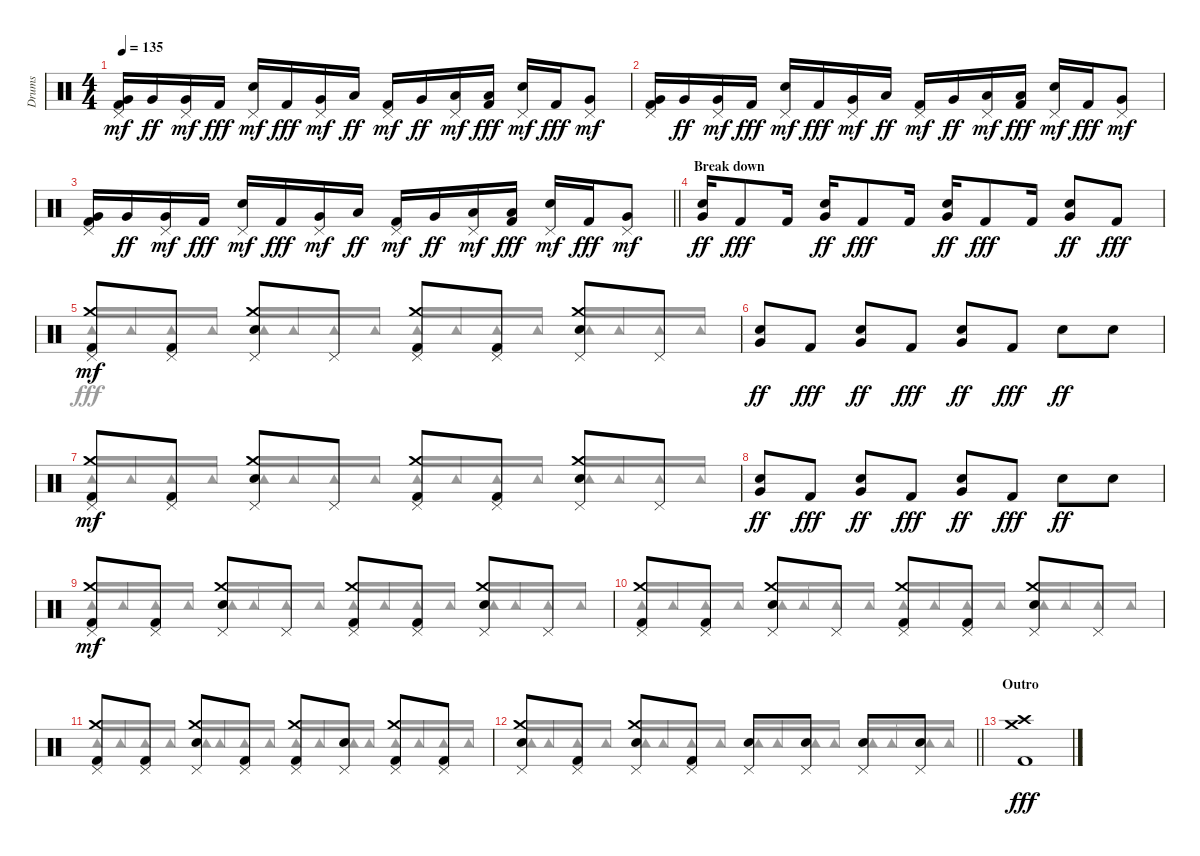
\track ("Drums" "Drums") {instrument percussion}
\staff {score}
\articulation defaults
\voice
\ts (4 4)
\tempo 135
\clef neutral
\ks c
("Very Low Tom (hit)" "Kick (hit) 2" "Pedal Hi-Hat (hit)").16{dy mf} "Very Low Tom (hit)".16{dy ff} ("Very Low Tom (hit)" "Pedal Hi-Hat (hit)").16{dy mf} "Kick (hit) 2".16{dy fff} ("Snare (hit) 2" "Pedal Hi-Hat (hit)").16{dy mf} "Kick (hit) 2".16{dy fff} ("Very Low Tom (hit)" "Pedal Hi-Hat (hit)").16{dy mf} "Low Floor Tom (hit)".16{dy ff} ("Kick (hit) 2" "Pedal Hi-Hat (hit)").16{dy mf} "Very Low Tom (hit)".16{dy ff} ("Low Floor Tom (hit)" "Pedal Hi-Hat (hit)").16{dy mf} ("Low Floor Tom (hit)" "Kick (hit) 2").16{dy fff} ("Snare (hit) 2" "Pedal Hi-Hat (hit)").16{dy mf} "Kick (hit) 2".16{dy fff} ("Very Low Tom (hit)" "Pedal Hi-Hat (hit)").8{dy mf} |
("Very Low Tom (hit)" "Kick (hit) 2" "Pedal Hi-Hat (hit)").16 "Very Low Tom (hit)".16{dy ff} ("Very Low Tom (hit)" "Pedal Hi-Hat (hit)").16{dy mf} "Kick (hit) 2".16{dy fff} ("Snare (hit) 2" "Pedal Hi-Hat (hit)").16{dy mf} "Kick (hit) 2".16{dy fff} ("Very Low Tom (hit)" "Pedal Hi-Hat (hit)").16{dy mf} "Low Floor Tom (hit)".16{dy ff} ("Kick (hit) 2" "Pedal Hi-Hat (hit)").16{dy mf} "Very Low Tom (hit)".16{dy ff} ("Low Floor Tom (hit)" "Pedal Hi-Hat (hit)").16{dy mf} ("Low Floor Tom (hit)" "Kick (hit) 2").16{dy fff} ("Snare (hit) 2" "Pedal Hi-Hat (hit)").16{dy mf} "Kick (hit) 2".16{dy fff} ("Very Low Tom (hit)" "Pedal Hi-Hat (hit)").8{dy mf} |
\barLineRight lightlight
("Very Low Tom (hit)" "Kick (hit) 2" "Pedal Hi-Hat (hit)").16 "Very Low Tom (hit)".16{dy ff} ("Very Low Tom (hit)" "Pedal Hi-Hat (hit)").16{dy mf} "Kick (hit) 2".16{dy fff} ("Snare (hit) 2" "Pedal Hi-Hat (hit)").16{dy mf} "Kick (hit) 2".16{dy fff} ("Very Low Tom (hit)" "Pedal Hi-Hat (hit)").16{dy mf} "Low Floor Tom (hit)".16{dy ff} ("Kick (hit) 2" "Pedal Hi-Hat (hit)").16{dy mf} "Very Low Tom (hit)".16{dy ff} ("Low Floor Tom (hit)" "Pedal Hi-Hat (hit)").16{dy mf} ("Low Floor Tom (hit)" "Kick (hit) 2").16{dy fff} ("Snare (hit) 2" "Pedal Hi-Hat (hit)").16{dy mf} "Kick (hit) 2".16{dy fff} ("Very Low Tom (hit)" "Pedal Hi-Hat (hit)").8{dy mf} |
\section ("" "Break down")
("Very Low Tom (hit)" "Snare (hit) 2").16{bu 120 dy ff} "Kick (hit) 2".8{dy fff} "Kick (hit) 2".16 ("Very Low Tom (hit)" "Snare (hit) 2").16{bu 120 dy ff} "Kick (hit) 2".8{dy fff} "Kick (hit) 2".16 ("Very Low Tom (hit)" "Snare (hit) 2").16{bu 120 dy ff} "Kick (hit) 2".8{dy fff} "Kick (hit) 2".16 ("Very Low Tom (hit)" "Snare (hit) 2").8{bu 120 dy ff} "Kick (hit) 2".8{dy fff} |
("Crash medium (hit)" "Kick (hit) 2" "Pedal Hi-Hat (hit)").8{dy mf} ("Kick (hit) 2" "Pedal Hi-Hat (hit)").8 ("Crash medium (hit)" "Snare (hit) 2" "Pedal Hi-Hat (hit)").8 "Pedal Hi-Hat (hit)".8 ("Crash medium (hit)" "Kick (hit) 2" "Pedal Hi-Hat (hit)").8 ("Kick (hit) 2" "Pedal Hi-Hat (hit)").8 ("Crash medium (hit)" "Snare (hit) 2" "Pedal Hi-Hat (hit)").8 "Pedal Hi-Hat (hit)".8 |
("Very Low Tom (hit)" "Snare (hit) 2").8{dy ff} "Kick (hit) 2".8{dy fff} ("Very Low Tom (hit)" "Snare (hit) 2").8{dy ff} "Kick (hit) 2".8{dy fff} ("Very Low Tom (hit)" "Snare (hit) 2").8{dy ff} "Kick (hit) 2".8{dy fff} "Snare (hit) 2".8{dy ff} "Snare (hit) 2".8 |
("Crash medium (hit)" "Kick (hit) 2" "Pedal Hi-Hat (hit)").8{dy mf} ("Kick (hit) 2" "Pedal Hi-Hat (hit)").8 ("Crash medium (hit)" "Snare (hit) 2" "Pedal Hi-Hat (hit)").8 "Pedal Hi-Hat (hit)".8 ("Crash medium (hit)" "Kick (hit) 2" "Pedal Hi-Hat (hit)").8 ("Kick (hit) 2" "Pedal Hi-Hat (hit)").8 ("Crash medium (hit)" "Snare (hit) 2" "Pedal Hi-Hat (hit)").8 "Pedal Hi-Hat (hit)".8 |
("Very Low Tom (hit)" "Snare (hit) 2").8{dy ff} "Kick (hit) 2".8{dy fff} ("Very Low Tom (hit)" "Snare (hit) 2").8{dy ff} "Kick (hit) 2".8{dy fff} ("Very Low Tom (hit)" "Snare (hit) 2").8{dy ff} "Kick (hit) 2".8{dy fff} "Snare (hit) 2".8{dy ff} "Snare (hit) 2".8 |
("Crash medium (hit)" "Kick (hit) 2" "Pedal Hi-Hat (hit)").8{dy mf} ("Kick (hit) 2" "Pedal Hi-Hat (hit)").8 ("Crash medium (hit)" "Snare (hit) 2" "Pedal Hi-Hat (hit)").8 "Pedal Hi-Hat (hit)".8 ("Crash medium (hit)" "Kick (hit) 2" "Pedal Hi-Hat (hit)").8 ("Kick (hit) 2" "Pedal Hi-Hat (hit)").8 ("Crash medium (hit)" "Snare (hit) 2" "Pedal Hi-Hat (hit)").8 "Pedal Hi-Hat (hit)".8 |
("Crash medium (hit)" "Kick (hit) 2" "Pedal Hi-Hat (hit)").8 ("Kick (hit) 2" "Pedal Hi-Hat (hit)").8 ("Crash medium (hit)" "Snare (hit) 2" "Pedal Hi-Hat (hit)").8 "Pedal Hi-Hat (hit)".8 ("Crash medium (hit)" "Kick (hit) 2" "Pedal Hi-Hat (hit)").8 ("Kick (hit) 2" "Pedal Hi-Hat (hit)").8 ("Crash medium (hit)" "Snare (hit) 2" "Pedal Hi-Hat (hit)").8 "Pedal Hi-Hat (hit)".8 |
("Crash medium (hit)" "Kick (hit) 2" "Pedal Hi-Hat (hit)").8 ("Kick (hit) 2" "Pedal Hi-Hat (hit)").8 ("Crash medium (hit)" "Snare (hit) 2" "Pedal Hi-Hat (hit)").8 ("Kick (hit) 2" "Pedal Hi-Hat (hit)").8 ("Crash medium (hit)" "Kick (hit) 2" "Pedal Hi-Hat (hit)").8 ("Snare (hit) 2" "Pedal Hi-Hat (hit)").8 ("Crash medium (hit)" "Kick (hit) 2" "Pedal Hi-Hat (hit)").8 ("Kick (hit) 2" "Pedal Hi-Hat (hit)").8 |
\barLineRight lightlight
("Crash medium (hit)" "Snare (hit) 2" "Pedal Hi-Hat (hit)").8 ("Kick (hit) 2" "Pedal Hi-Hat (hit)").8 ("Crash medium (hit)" "Snare (hit) 2" "Pedal Hi-Hat (hit)").8 ("Kick (hit) 2" "Pedal Hi-Hat (hit)").8 ("Snare (hit) 2" "Pedal Hi-Hat (hit)").8 ("Snare (hit) 2" "Pedal Hi-Hat (hit)").8 ("Snare (hit) 2" "Pedal Hi-Hat (hit)").8 ("Snare (hit) 2" "Pedal Hi-Hat (hit)").8 |
\section ("" "Outro")
("Crash medium (hit)" "Crash high (hit)" "Kick (hit) 2").1{dy fff} |
|
|
\voice
\clef neutral
\ottava regular
\simile none
\ks c
|
|
\barLineRight lightlight
|
|
"Tambourine (hit)".16{beam Up} "Tambourine (hit)".16{beam Up} "Tambourine (hit)".16{beam Up} "Tambourine (hit)".16{beam Up} "Tambourine (hit)".16{beam Up} "Tambourine (hit)".16{beam Up} "Tambourine (hit)".16{beam Up} "Tambourine (hit)".16{beam Up} "Tambourine (hit)".16{beam Up} "Tambourine (hit)".16{beam Up} "Tambourine (hit)".16{beam Up} "Tambourine (hit)".16{beam Up} "Tambourine (hit)".16{beam Up} "Tambourine (hit)".16{beam Up} "Tambourine (hit)".16{beam Up} "Tambourine (hit)".16{beam Up} |
|
"Tambourine (hit)".16{beam Up} "Tambourine (hit)".16{beam Up} "Tambourine (hit)".16{beam Up} "Tambourine (hit)".16{beam Up} "Tambourine (hit)".16{beam Up} "Tambourine (hit)".16{beam Up} "Tambourine (hit)".16{beam Up} "Tambourine (hit)".16{beam Up} "Tambourine (hit)".16{beam Up} "Tambourine (hit)".16{beam Up} "Tambourine (hit)".16{beam Up} "Tambourine (hit)".16{beam Up} "Tambourine (hit)".16{beam Up} "Tambourine (hit)".16{beam Up} "Tambourine (hit)".16{beam Up} "Tambourine (hit)".16{beam Up} |
|
"Tambourine (hit)".16{beam Up} "Tambourine (hit)".16{beam Up} "Tambourine (hit)".16{beam Up} "Tambourine (hit)".16{beam Up} "Tambourine (hit)".16{beam Up} "Tambourine (hit)".16{beam Up} "Tambourine (hit)".16{beam Up} "Tambourine (hit)".16{beam Up} "Tambourine (hit)".16{beam Up} "Tambourine (hit)".16{beam Up} "Tambourine (hit)".16{beam Up} "Tambourine (hit)".16{beam Up} "Tambourine (hit)".16{beam Up} "Tambourine (hit)".16{beam Up} "Tambourine (hit)".16{beam Up} "Tambourine (hit)".16{beam Up} |
"Tambourine (hit)".16{beam Up} "Tambourine (hit)".16{beam Up} "Tambourine (hit)".16{beam Up} "Tambourine (hit)".16{beam Up} "Tambourine (hit)".16{beam Up} "Tambourine (hit)".16{beam Up} "Tambourine (hit)".16{beam Up} "Tambourine (hit)".16{beam Up} "Tambourine (hit)".16{beam Up} "Tambourine (hit)".16{beam Up} "Tambourine (hit)".16{beam Up} "Tambourine (hit)".16{beam Up} "Tambourine (hit)".16{beam Up} "Tambourine (hit)".16{beam Up} "Tambourine (hit)".16{beam Up} "Tambourine (hit)".16{beam Up} |
"Tambourine (hit)".16{beam Up} "Tambourine (hit)".16{beam Up} "Tambourine (hit)".16{beam Up} "Tambourine (hit)".16{beam Up} "Tambourine (hit)".16{beam Up} "Tambourine (hit)".16{beam Up} "Tambourine (hit)".16{beam Up} "Tambourine (hit)".16{beam Up} "Tambourine (hit)".16{beam Up} "Tambourine (hit)".16{beam Up} "Tambourine (hit)".16{beam Up} "Tambourine (hit)".16{beam Up} "Tambourine (hit)".16{beam Up} "Tambourine (hit)".16{beam Up} "Tambourine (hit)".16{beam Up} "Tambourine (hit)".16{beam Up} |
\barLineRight lightlight "Tambourine (hit)".16{beam Up} "Tambourine (hit)".16{beam Up} "Tambourine (hit)".16{beam Up} "Tambourine (hit)".16{beam Up} "Tambourine (hit)".16{beam Up} "Tambourine (hit)".16{beam Up} "Tambourine (hit)".16{beam Up} "Tambourine (hit)".16{beam Up} "Tambourine (hit)".16{beam Up} "Tambourine (hit)".16{beam Up} "Tambourine (hit)".16{beam Up} "Tambourine (hit)".16{beam Up} "Tambourine (hit)".16{beam Up} "Tambourine (hit)".16{beam Up} "Tambourine (hit)".16{beam Up} "Tambourine (hit)".16{beam Up}
|
|
|
|
